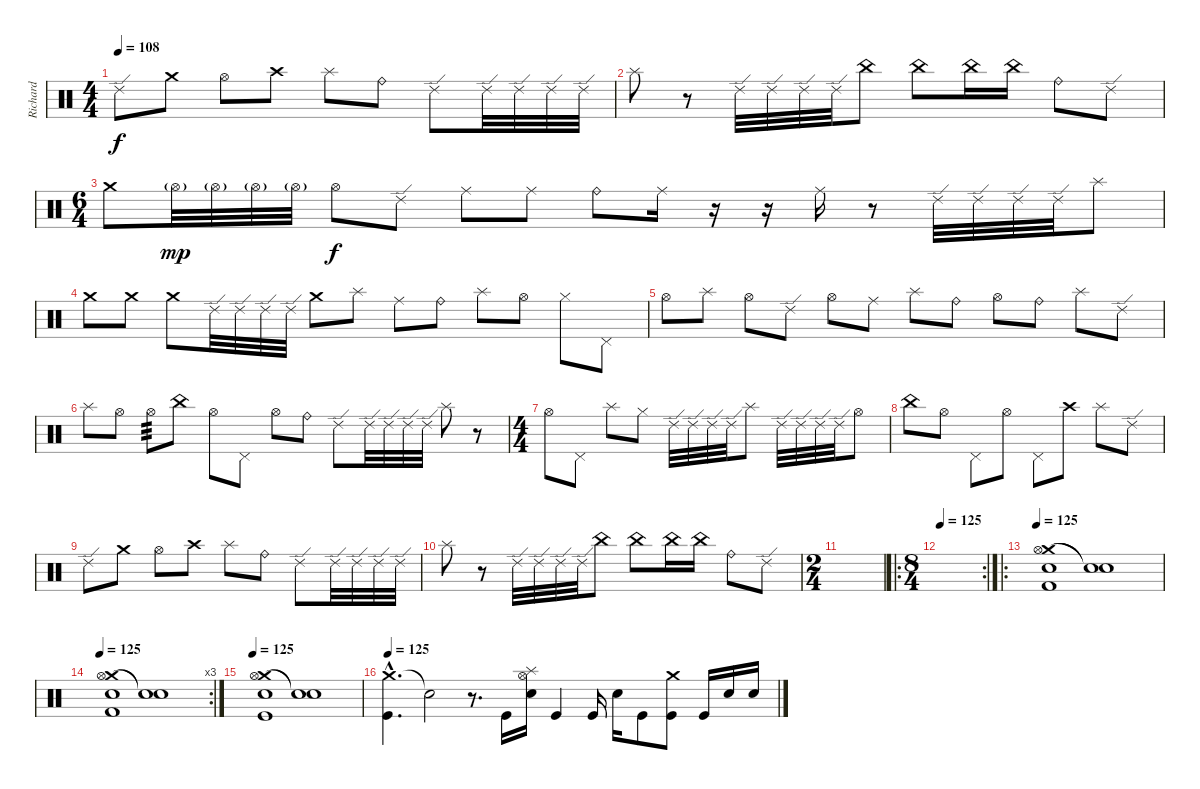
\track ("Richard" "Richard") {instrument percussion}
\staff {score}
\articulation defaults
\ts (4 4)
\tempo 108
\clef neutral
\ks c "Ride (edge) 2".8{dy f} "Crash medium (hit)".8 "Hi-Hat (open)".8 "Crash high (hit)".8 "Splash (hit)".8 "Ride (bell)".8 "Ride (edge) 2".8 "Ride (edge) 2".32 "Ride (edge) 2".32 "Ride (edge) 2".32 "Ride (edge) 2".32
|
"Splash (hit)".8 r.8 "Ride (edge) 2".32 "Ride (edge) 2".32 "Ride (edge) 2".32 "Ride (edge) 2".32 "China (hit)".8 "China (hit)".8 "China (hit)".16 "China (hit)".16 "Ride (bell)".8 "Ride (edge) 2".8 |
\ts (6 4)
"Crash medium (hit)".8 "Hi-Hat (open)"{g}.32{dy mp} "Hi-Hat (open)"{g}.32 "Hi-Hat (open)"{g}.32 "Hi-Hat (open)"{g}.32 "Hi-Hat (open)".8{dy f} "Ride (edge) 2".8 "Ride (middle)".8 "Ride (middle)".8 "Ride (bell)".8 "Ride (middle)".16 r.16 r.16 "Ride (middle)".16 r.8 "Ride (edge) 2".32 "Ride (edge) 2".32 "Ride (edge) 2".32 "Ride (edge) 2".32 "Splash (hit)".8 |
"Crash medium (hit)".8 "Crash medium (hit)".8 "Crash medium (hit)".8 "Ride (edge) 2".32 "Ride (edge) 2".32 "Ride (edge) 2".32 "Ride (edge) 2".32 "Crash medium (hit)".8 "Splash (hit)".8 "Ride (middle)".8 "Ride (bell)".8 "Splash (hit)".8 "Hi-Hat (open)".8 "Hi-Hat (closed)".8 "Pedal Hi-Hat (hit)".8 |
"Hi-Hat (open)".8 "Splash (hit)".8 "Hi-Hat (open)".8 "Ride (edge) 2".8 "Hi-Hat (open)".8 "Ride (middle)".8 "Splash (hit)".8 "Ride (bell)".8 "Hi-Hat (open)".8 "Ride (bell)".8 "Splash (hit)".8 "Ride (edge) 2".8 |
"Splash (hit)".8 "Hi-Hat (open)".8 "Hi-Hat (open)".8{tp 3} "China (hit)".8 "Hi-Hat (open)".8 "Pedal Hi-Hat (hit)".8 "Hi-Hat (open)".8 "Ride (bell)".8 "Ride (edge) 2".8 "Ride (edge) 2".32 "Ride (edge) 2".32 "Ride (edge) 2".32 "Ride (edge) 2".32 "Splash (hit)".8 r.8 |
\ts (4 4)
"Hi-Hat (open)".8 "Pedal Hi-Hat (hit)".8 "Splash (hit)".8 "Hi-Hat (closed)".8 "Ride (edge) 2".32 "Ride (edge) 2".32 "Ride (edge) 2".32 "Ride (edge) 2".32 "Splash (hit)".8 "Ride (edge) 2".32 "Ride (edge) 2".32 "Ride (edge) 2".32 "Ride (edge) 2".32 "Hi-Hat (open)".8 |
"China (hit)".8 "Hi-Hat (open)".8 "Pedal Hi-Hat (hit)".8 "Hi-Hat (open)".8 "Pedal Hi-Hat (hit)".8 "Crash high (hit)".8 "Splash (hit)".8 "Ride (edge) 2".8 |
"Ride (edge) 2".8 "Crash medium (hit)".8 "Hi-Hat (open)".8 "Crash high (hit)".8 "Splash (hit)".8 "Ride (bell)".8 "Ride (edge) 2".8 "Ride (edge) 2".32 "Ride (edge) 2".32 "Ride (edge) 2".32 "Ride (edge) 2".32 |
"Splash (hit)".8 r.8 "Ride (edge) 2".32 "Ride (edge) 2".32 "Ride (edge) 2".32 "Ride (edge) 2".32 "China (hit)".8 "China (hit)".8 "China (hit)".16 "China (hit)".16 "Ride (bell)".8 "Ride (edge) 2".8 |
\ts (2 4)
|
\ro
\rc 2
\ts (8 4)
\tempo 125
|
\ro
\tempo 125
("Crash medium (hit)" "Hi-Hat (open)" "Electric Snare (hit)" "Kick (hit) 2").1{volume 16 balance 8} ("Snare (hit)"{t} "Snare (hit)"{t}).1 |
\rc 3
\tempo 125
("Crash medium (hit)" "Hi-Hat (open)" "Electric Snare (hit)" "Kick (hit) 2").1 ("Snare (hit)"{t} "Snare (hit)"{t}).1 |
\tempo 125
("Crash medium (hit)" "Hi-Hat (open)" "Electric Snare (hit)" "Kick (hit)").1 ("Snare (hit)"{t} "Snare (hit)"{t}).1 |
\tempo 125
("Crash medium (hit)"{hac} "Kick (hit)"{hac}).4{d} "Snare (hit)"{t}.2 r.8{d} "Kick (hit)".16 ("Splash (hit)" "Hi-Hat (open)" "Electric Snare (hit)").16 "Kick (hit)".4 "Kick (hit)".16 "Electric Snare (hit)".16 "Kick (hit)".8 ("Crash medium (hit)" "Kick (hit)").8 "Kick (hit)".16 "Electric Snare (hit)".16 "Electric Snare (hit)".16
